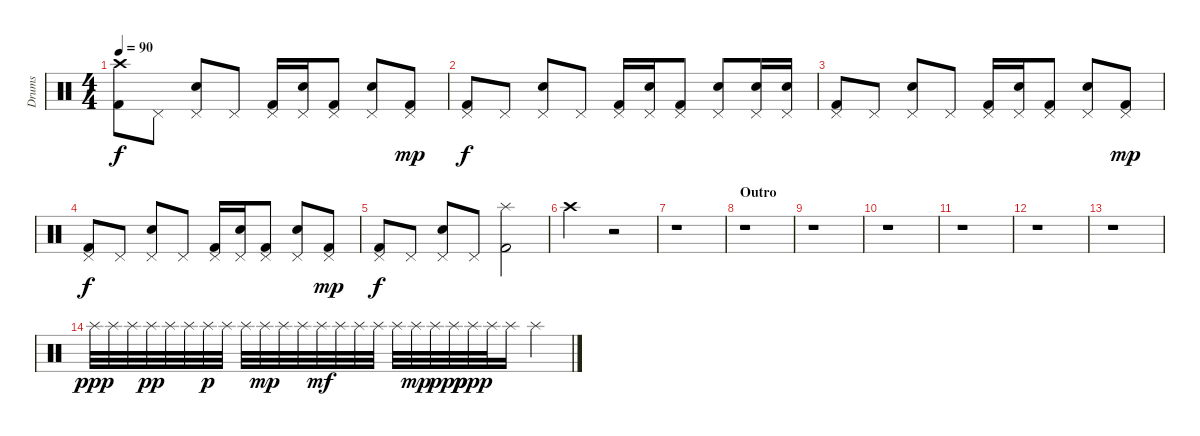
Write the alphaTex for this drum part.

\track ("Drums" "Drums") {instrument percussion}
\staff {score}
\articulation defaults
\ts (4 4)
\tempo 90
\clef neutral
\ks c
("Crash high (hit)" "Kick (hit) 2").8{dy f} "Pedal Hi-Hat (hit)".8 ("Pedal Hi-Hat (hit)" "Electric Snare (hit)").8 "Pedal Hi-Hat (hit)".8 ("Pedal Hi-Hat (hit)" "Kick (hit) 2").16 ("Pedal Hi-Hat (hit)" "Electric Snare (hit)").16 ("Pedal Hi-Hat (hit)" "Kick (hit) 2").8 ("Pedal Hi-Hat (hit)" "Electric Snare (hit)").8 ("Pedal Hi-Hat (hit)" "Kick (hit) 2").8{dy mp} |
("Pedal Hi-Hat (hit)" "Kick (hit) 2").8{dy f} "Pedal Hi-Hat (hit)".8 ("Pedal Hi-Hat (hit)" "Electric Snare (hit)").8 "Pedal Hi-Hat (hit)".8 ("Pedal Hi-Hat (hit)" "Kick (hit) 2").16 ("Pedal Hi-Hat (hit)" "Electric Snare (hit)").16 ("Pedal Hi-Hat (hit)" "Kick (hit) 2").8 ("Pedal Hi-Hat (hit)" "Electric Snare (hit)").8 ("Pedal Hi-Hat (hit)" "Electric Snare (hit)").16 ("Pedal Hi-Hat (hit)" "Electric Snare (hit)").16 |
("Pedal Hi-Hat (hit)" "Kick (hit) 2").8 "Pedal Hi-Hat (hit)".8 ("Pedal Hi-Hat (hit)" "Electric Snare (hit)").8 "Pedal Hi-Hat (hit)".8 ("Pedal Hi-Hat (hit)" "Kick (hit) 2").16 ("Pedal Hi-Hat (hit)" "Electric Snare (hit)").16 ("Pedal Hi-Hat (hit)" "Kick (hit) 2").8 ("Pedal Hi-Hat (hit)" "Electric Snare (hit)").8 ("Pedal Hi-Hat (hit)" "Kick (hit) 2").8{dy mp} |
("Pedal Hi-Hat (hit)" "Kick (hit) 2").8{dy f} "Pedal Hi-Hat (hit)".8 ("Pedal Hi-Hat (hit)" "Electric Snare (hit)").8 "Pedal Hi-Hat (hit)".8 ("Pedal Hi-Hat (hit)" "Kick (hit) 2").16 ("Pedal Hi-Hat (hit)" "Electric Snare (hit)").16 ("Pedal Hi-Hat (hit)" "Kick (hit) 2").8 ("Pedal Hi-Hat (hit)" "Electric Snare (hit)").8 ("Pedal Hi-Hat (hit)" "Kick (hit) 2").8{dy mp} |
("Pedal Hi-Hat (hit)" "Kick (hit) 2").8{dy f} "Pedal Hi-Hat (hit)".8 ("Pedal Hi-Hat (hit)" "Electric Snare (hit)").8 "Pedal Hi-Hat (hit)".8 ("Splash (hit)" "Kick (hit) 2").2 |
"Crash high (hit)".2 r.2 |
r.1 |
\section ("" "Outro")
r.1 |
r.1 |
r.1 |
r.1 |
r.1 |
r.1 |
"Splash (hit)".32{dy ppp} "Splash (hit)".32 "Splash (hit)".32 "Splash (hit)".32{dy pp} "Splash (hit)".32 "Splash (hit)".32 "Splash (hit)".32{dy p} "Splash (hit)".32 "Splash (hit)".32 "Splash (hit)".32{dy mp} "Splash (hit)".32 "Splash (hit)".32 "Splash (hit)".32{dy mf} "Splash (hit)".32 "Splash (hit)".32 "Splash (hit)".32 "Splash (hit)".32 "Splash (hit)".32{dy mp} "Splash (hit)".32{dy p} "Splash (hit)".32{dy pp} "Splash (hit)".32{dy ppp} "Splash (hit)".32 "Splash (hit)".16 "Splash (hit)".4
